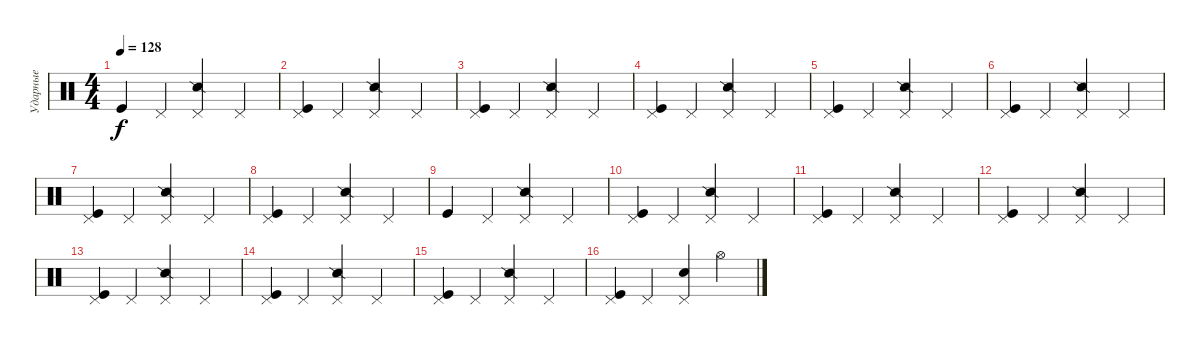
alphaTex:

\track ("Ударные" "Ударные") {instrument percussion}
\staff {score}
\articulation defaults
\ts (4 4)
\tempo 128
\clef neutral
\ks c "Kick (hit)".4{dy f} "Pedal Hi-Hat (hit)".4
("Pedal Hi-Hat (hit)" "Snare (side stick) 2").4 "Pedal Hi-Hat (hit)".4 |
("Pedal Hi-Hat (hit)" "Kick (hit)").4 "Pedal Hi-Hat (hit)".4 ("Pedal Hi-Hat (hit)" "Snare (side stick) 2").4 "Pedal Hi-Hat (hit)".4 |
("Pedal Hi-Hat (hit)" "Kick (hit)").4 "Pedal Hi-Hat (hit)".4 ("Pedal Hi-Hat (hit)" "Snare (side stick) 2").4 "Pedal Hi-Hat (hit)".4 |
("Pedal Hi-Hat (hit)" "Kick (hit)").4 "Pedal Hi-Hat (hit)".4 ("Pedal Hi-Hat (hit)" "Snare (side stick) 2").4 "Pedal Hi-Hat (hit)".4 |
("Pedal Hi-Hat (hit)" "Kick (hit)").4 "Pedal Hi-Hat (hit)".4 ("Pedal Hi-Hat (hit)" "Snare (side stick) 2").4 "Pedal Hi-Hat (hit)".4 |
("Pedal Hi-Hat (hit)" "Kick (hit)").4 "Pedal Hi-Hat (hit)".4 ("Pedal Hi-Hat (hit)" "Snare (side stick) 2").4 "Pedal Hi-Hat (hit)".4 |
("Pedal Hi-Hat (hit)" "Kick (hit)").4 "Pedal Hi-Hat (hit)".4 ("Pedal Hi-Hat (hit)" "Snare (side stick) 2").4 "Pedal Hi-Hat (hit)".4 |
("Pedal Hi-Hat (hit)" "Kick (hit)").4 "Pedal Hi-Hat (hit)".4 ("Pedal Hi-Hat (hit)" "Snare (side stick) 2").4 "Pedal Hi-Hat (hit)".4 |
"Kick (hit)".4 "Pedal Hi-Hat (hit)".4 ("Pedal Hi-Hat (hit)" "Snare (side stick) 2").4 "Pedal Hi-Hat (hit)".4 |
("Pedal Hi-Hat (hit)" "Kick (hit)").4 "Pedal Hi-Hat (hit)".4 ("Pedal Hi-Hat (hit)" "Snare (side stick) 2").4 "Pedal Hi-Hat (hit)".4 |
("Pedal Hi-Hat (hit)" "Kick (hit)").4 "Pedal Hi-Hat (hit)".4 ("Pedal Hi-Hat (hit)" "Snare (side stick) 2").4 "Pedal Hi-Hat (hit)".4 |
("Pedal Hi-Hat (hit)" "Kick (hit)").4 "Pedal Hi-Hat (hit)".4 ("Pedal Hi-Hat (hit)" "Snare (side stick) 2").4 "Pedal Hi-Hat (hit)".4 |
("Pedal Hi-Hat (hit)" "Kick (hit)").4 "Pedal Hi-Hat (hit)".4 ("Pedal Hi-Hat (hit)" "Snare (side stick) 2").4 "Pedal Hi-Hat (hit)".4 |
("Pedal Hi-Hat (hit)" "Kick (hit)").4 "Pedal Hi-Hat (hit)".4 ("Pedal Hi-Hat (hit)" "Snare (side stick) 2").4 "Pedal Hi-Hat (hit)".4 |
("Pedal Hi-Hat (hit)" "Kick (hit)").4 "Pedal Hi-Hat (hit)".4 ("Pedal Hi-Hat (hit)" "Snare (side stick) 2").4 "Pedal Hi-Hat (hit)".4 |
("Pedal Hi-Hat (hit)" "Kick (hit)").4 "Pedal Hi-Hat (hit)".4 ("Pedal Hi-Hat (hit)" "Electric Snare (hit)").4 "Hi-Hat (open)".4
